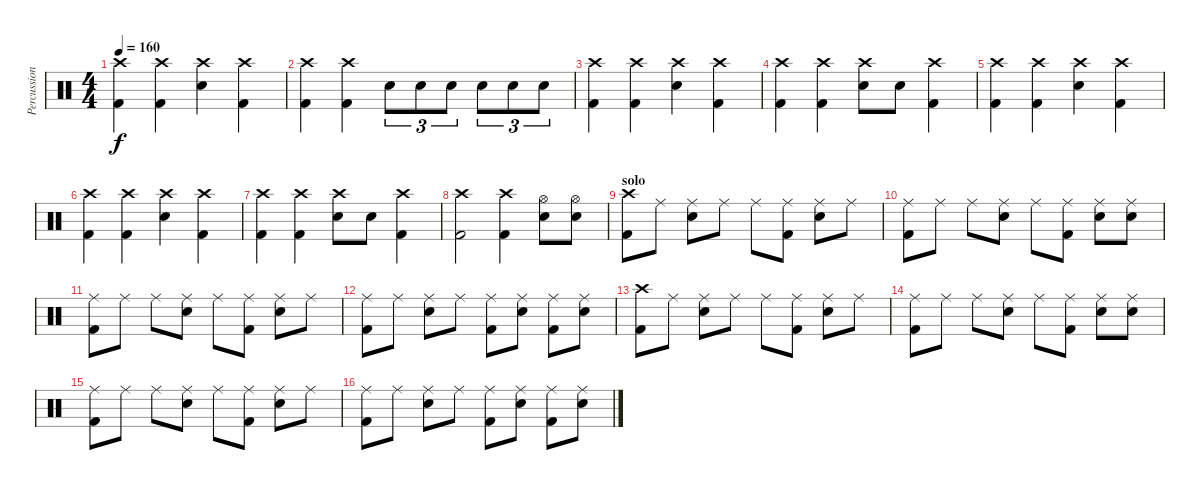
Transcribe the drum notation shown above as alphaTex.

\track ("Percussions" "Percussion") {instrument percussion}
\staff {score}
\articulation defaults
\ts (4 4)
\tempo 160
\clef neutral
\ks c
("Crash high (hit)" "Kick (hit) 2").4{dy f} ("Crash high (hit)" "Kick (hit) 2").4 ("Crash high (hit)" "Snare (hit) 2").4 ("Crash high (hit)" "Kick (hit) 2").4 |
("Crash high (hit)" "Kick (hit) 2").4 ("Crash high (hit)" "Kick (hit) 2").4 "Snare (hit) 2".8{tu (3 2)} "Snare (hit) 2".8{tu (3 2)} "Snare (hit) 2".8{tu (3 2)} "Snare (hit) 2".8{tu (3 2)} "Snare (hit) 2".8{tu (3 2)} "Snare (hit) 2".8{tu (3 2)} |
("Crash high (hit)" "Kick (hit) 2").4 ("Crash high (hit)" "Kick (hit) 2").4 ("Crash high (hit)" "Snare (hit) 2").4 ("Crash high (hit)" "Kick (hit) 2").4 |
("Crash high (hit)" "Kick (hit) 2").4 ("Crash high (hit)" "Kick (hit) 2").4 ("Crash high (hit)" "Snare (hit) 2").8 "Snare (hit) 2".8 ("Crash high (hit)" "Kick (hit) 2").4 |
("Crash high (hit)" "Kick (hit) 2").4 ("Crash high (hit)" "Kick (hit) 2").4 ("Crash high (hit)" "Snare (hit) 2").4 ("Crash high (hit)" "Kick (hit) 2").4 |
("Crash high (hit)" "Kick (hit) 2").4 ("Crash high (hit)" "Kick (hit) 2").4 ("Crash high (hit)" "Snare (hit) 2").4 ("Crash high (hit)" "Kick (hit) 2").4 |
("Crash high (hit)" "Kick (hit) 2").4 ("Crash high (hit)" "Kick (hit) 2").4 ("Crash high (hit)" "Snare (hit) 2").8 "Snare (hit) 2".8 ("Crash high (hit)" "Kick (hit) 2").4 |
("Crash high (hit)" "Kick (hit) 2").2 ("Crash high (hit)" "Kick (hit) 2").4 ("Hi-Hat (open)" "Snare (hit) 2").8 ("Hi-Hat (open)" "Snare (hit) 2").8 |
\section ("" "solo")
("Crash high (hit)" "Kick (hit) 2").8 "Ride (middle)".8 ("Ride (middle)" "Snare (hit) 2").8 "Ride (middle)".8 "Ride (middle)".8 ("Ride (middle)" "Kick (hit) 2").8 ("Ride (middle)" "Snare (hit) 2").8 "Ride (middle)".8 |
("Ride (middle)" "Kick (hit) 2").8 "Ride (middle)".8 "Ride (middle)".8 ("Ride (middle)" "Snare (hit) 2").8 "Ride (middle)".8 ("Ride (middle)" "Kick (hit) 2").8 ("Ride (middle)" "Snare (hit) 2").8 ("Ride (middle)" "Snare (hit) 2").8 |
("Ride (middle)" "Kick (hit) 2").8 "Ride (middle)".8 "Ride (middle)".8 ("Ride (middle)" "Snare (hit) 2").8 "Ride (middle)".8 ("Ride (middle)" "Kick (hit) 2").8 ("Ride (middle)" "Snare (hit) 2").8 "Ride (middle)".8 |
("Ride (middle)" "Kick (hit) 2").8 "Ride (middle)".8 ("Ride (middle)" "Snare (hit) 2").8 "Ride (middle)".8 ("Ride (middle)" "Kick (hit) 2").8 ("Ride (middle)" "Snare (hit) 2").8 ("Ride (middle)" "Kick (hit) 2").8 ("Ride (middle)" "Snare (hit) 2").8 |
("Crash high (hit)" "Kick (hit) 2").8 "Ride (middle)".8 ("Ride (middle)" "Snare (hit) 2").8 "Ride (middle)".8 "Ride (middle)".8 ("Ride (middle)" "Kick (hit) 2").8 ("Ride (middle)" "Snare (hit) 2").8 "Ride (middle)".8 |
("Ride (middle)" "Kick (hit) 2").8 "Ride (middle)".8 "Ride (middle)".8 ("Ride (middle)" "Snare (hit) 2").8 "Ride (middle)".8 ("Ride (middle)" "Kick (hit) 2").8 ("Ride (middle)" "Snare (hit) 2").8 ("Ride (middle)" "Snare (hit) 2").8 |
("Ride (middle)" "Kick (hit) 2").8 "Ride (middle)".8 "Ride (middle)".8 ("Ride (middle)" "Snare (hit) 2").8 "Ride (middle)".8 ("Ride (middle)" "Kick (hit) 2").8 ("Ride (middle)" "Snare (hit) 2").8 "Ride (middle)".8 |
("Ride (middle)" "Kick (hit) 2").8 "Ride (middle)".8 ("Ride (middle)" "Snare (hit) 2").8 "Ride (middle)".8 ("Ride (middle)" "Kick (hit) 2").8 ("Ride (middle)" "Snare (hit) 2").8 ("Ride (middle)" "Kick (hit) 2").8 ("Ride (middle)" "Snare (hit) 2").8
